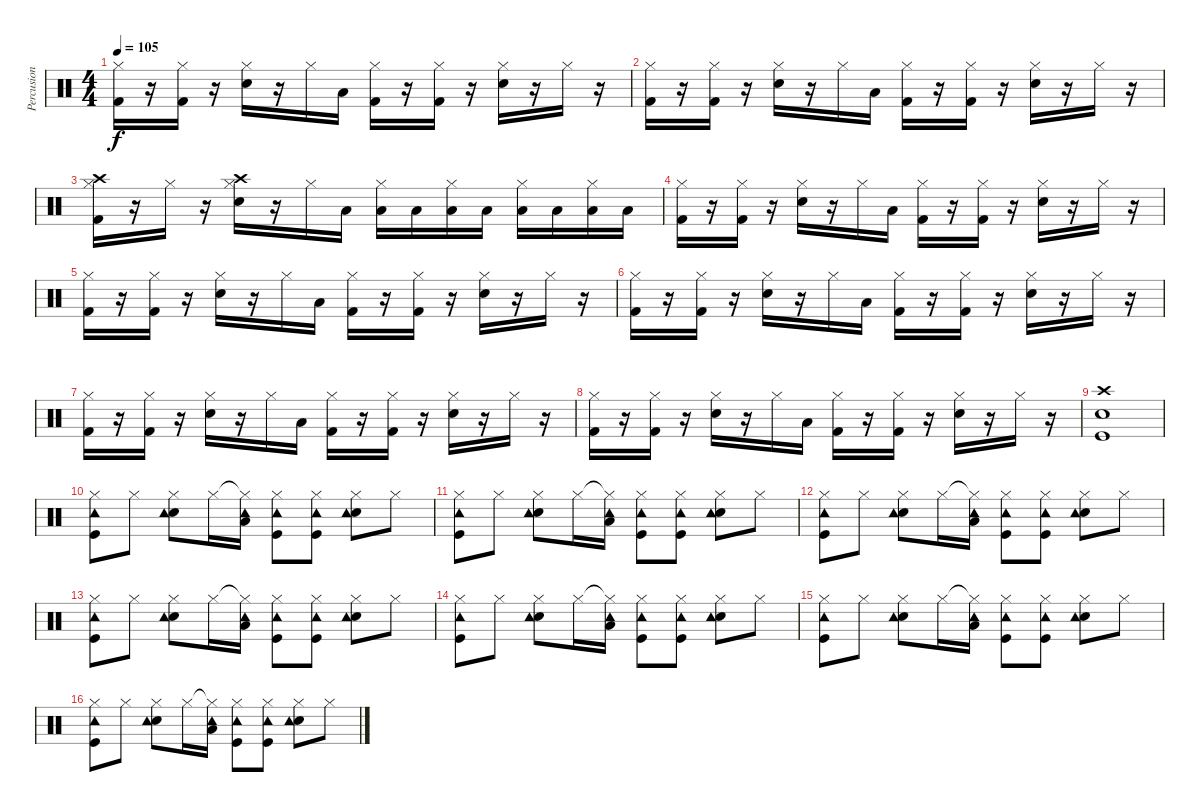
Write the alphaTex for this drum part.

\track ("Percusion" "Percusion") {instrument percussion}
\staff {score}
\articulation defaults
\ts (4 4)
\tempo 105
\clef neutral
\ks c
("Hi-Hat (closed)" "Kick (hit) 2").16{dy f} r.16 ("Hi-Hat (closed)" "Kick (hit) 2").16 r.16 ("Hi-Hat (closed)" "Snare (hit) 2").16 r.16 "Hi-Hat (closed)".16 "Low Floor Tom (hit)".16 ("Hi-Hat (closed)" "Kick (hit) 2").16 r.16 ("Hi-Hat (closed)" "Kick (hit) 2").16 r.16 ("Hi-Hat (closed)" "Snare (hit) 2").16 r.16 "Hi-Hat (closed)".16 r.16 |
("Hi-Hat (closed)" "Kick (hit) 2").16 r.16 ("Hi-Hat (closed)" "Kick (hit) 2").16 r.16 ("Hi-Hat (closed)" "Snare (hit) 2").16 r.16 "Hi-Hat (closed)".16 "Low Floor Tom (hit)".16 ("Hi-Hat (closed)" "Kick (hit) 2").16 r.16 ("Hi-Hat (closed)" "Kick (hit) 2").16 r.16 ("Hi-Hat (closed)" "Snare (hit) 2").16 r.16 "Hi-Hat (closed)".16 r.16 |
("Hi-Hat (closed)" "Kick (hit) 2" "Crash high (hit)").16 r.16 "Hi-Hat (closed)".16 r.16 ("Hi-Hat (closed)" "Snare (hit) 2" "Crash high (hit)").16 r.16 "Hi-Hat (closed)".16 "Low Floor Tom (hit)".16 ("Hi-Hat (closed)" "Low Tom (hit)").16 "Low Tom (hit)".16 ("Hi-Hat (closed)" "Low Tom (hit)").16 "Low Tom (hit)".16 ("Hi-Hat (closed)" "Low Tom (hit)").16 "Low Tom (hit)".16 ("Hi-Hat (closed)" "Low Tom (hit)").16 "Low Tom (hit)".16 |
("Hi-Hat (closed)" "Kick (hit) 2").16 r.16 ("Hi-Hat (closed)" "Kick (hit) 2").16 r.16 ("Hi-Hat (closed)" "Snare (hit) 2").16 r.16 "Hi-Hat (closed)".16 "Low Floor Tom (hit)".16 ("Hi-Hat (closed)" "Kick (hit) 2").16 r.16 ("Hi-Hat (closed)" "Kick (hit) 2").16 r.16 ("Hi-Hat (closed)" "Snare (hit) 2").16 r.16 "Hi-Hat (closed)".16 r.16 |
("Hi-Hat (closed)" "Kick (hit) 2").16 r.16 ("Hi-Hat (closed)" "Kick (hit) 2").16 r.16 ("Hi-Hat (closed)" "Snare (hit) 2").16 r.16 "Hi-Hat (closed)".16 "Low Floor Tom (hit)".16 ("Hi-Hat (closed)" "Kick (hit) 2").16 r.16 ("Hi-Hat (closed)" "Kick (hit) 2").16 r.16 ("Hi-Hat (closed)" "Snare (hit) 2").16 r.16 "Hi-Hat (closed)".16 r.16 |
("Hi-Hat (closed)" "Kick (hit) 2").16 r.16 ("Hi-Hat (closed)" "Kick (hit) 2").16 r.16 ("Hi-Hat (closed)" "Snare (hit) 2").16 r.16 "Hi-Hat (closed)".16 "Low Floor Tom (hit)".16 ("Hi-Hat (closed)" "Kick (hit) 2").16 r.16 ("Hi-Hat (closed)" "Kick (hit) 2").16 r.16 ("Hi-Hat (closed)" "Snare (hit) 2").16 r.16 "Hi-Hat (closed)".16 r.16 |
("Hi-Hat (closed)" "Kick (hit) 2").16 r.16 ("Hi-Hat (closed)" "Kick (hit) 2").16 r.16 ("Hi-Hat (closed)" "Snare (hit) 2").16 r.16 "Hi-Hat (closed)".16 "Low Floor Tom (hit)".16 ("Hi-Hat (closed)" "Kick (hit) 2").16 r.16 ("Hi-Hat (closed)" "Kick (hit) 2").16 r.16 ("Hi-Hat (closed)" "Snare (hit) 2").16 r.16 "Hi-Hat (closed)".16 r.16 |
("Hi-Hat (closed)" "Kick (hit) 2").16 r.16 ("Hi-Hat (closed)" "Kick (hit) 2").16 r.16 ("Hi-Hat (closed)" "Snare (hit) 2").16 r.16 "Hi-Hat (closed)".16 "Low Floor Tom (hit)".16 ("Hi-Hat (closed)" "Kick (hit) 2").16 r.16 ("Hi-Hat (closed)" "Kick (hit) 2").16 r.16 ("Hi-Hat (closed)" "Snare (hit) 2").16 r.16 "Hi-Hat (closed)".16 r.16 |
("Kick (hit)" "Crash high (hit)" "Snare (hit) 2").1 |
("Hi-Hat (closed)" "Kick (hit)" "Tambourine (hit)").8 "Hi-Hat (closed)".8 ("Hi-Hat (closed)" "Snare (hit) 2" "Tambourine (hit)").8 "Hi-Hat (closed)".16 ("Hi-Hat (closed)"{t} "Low Floor Tom (hit)" "Tambourine (hit)").16 ("Hi-Hat (closed)" "Kick (hit)" "Tambourine (hit)").8 ("Hi-Hat (closed)" "Kick (hit)" "Tambourine (hit)").8 ("Hi-Hat (closed)" "Snare (hit) 2" "Tambourine (hit)").8 "Hi-Hat (closed)".8 |
("Hi-Hat (closed)" "Kick (hit)" "Tambourine (hit)").8 "Hi-Hat (closed)".8 ("Hi-Hat (closed)" "Snare (hit) 2" "Tambourine (hit)").8 "Hi-Hat (closed)".16 ("Hi-Hat (closed)"{t} "Low Floor Tom (hit)" "Tambourine (hit)").16 ("Hi-Hat (closed)" "Kick (hit)" "Tambourine (hit)").8 ("Hi-Hat (closed)" "Kick (hit)" "Tambourine (hit)").8 ("Hi-Hat (closed)" "Snare (hit) 2" "Tambourine (hit)").8 "Hi-Hat (closed)".8 |
("Hi-Hat (closed)" "Kick (hit)" "Tambourine (hit)").8 "Hi-Hat (closed)".8 ("Hi-Hat (closed)" "Snare (hit) 2" "Tambourine (hit)").8 "Hi-Hat (closed)".16 ("Hi-Hat (closed)"{t} "Low Floor Tom (hit)" "Tambourine (hit)").16 ("Hi-Hat (closed)" "Kick (hit)" "Tambourine (hit)").8 ("Hi-Hat (closed)" "Kick (hit)" "Tambourine (hit)").8 ("Hi-Hat (closed)" "Snare (hit) 2" "Tambourine (hit)").8 "Hi-Hat (closed)".8 |
("Hi-Hat (closed)" "Kick (hit)" "Tambourine (hit)").8 "Hi-Hat (closed)".8 ("Hi-Hat (closed)" "Snare (hit) 2" "Tambourine (hit)").8 "Hi-Hat (closed)".16 ("Hi-Hat (closed)"{t} "Low Floor Tom (hit)" "Tambourine (hit)").16 ("Hi-Hat (closed)" "Kick (hit)" "Tambourine (hit)").8 ("Hi-Hat (closed)" "Kick (hit)" "Tambourine (hit)").8 ("Hi-Hat (closed)" "Snare (hit) 2" "Tambourine (hit)").8 "Hi-Hat (closed)".8 |
("Hi-Hat (closed)" "Kick (hit)" "Tambourine (hit)").8 "Hi-Hat (closed)".8 ("Hi-Hat (closed)" "Snare (hit) 2" "Tambourine (hit)").8 "Hi-Hat (closed)".16 ("Hi-Hat (closed)"{t} "Low Floor Tom (hit)" "Tambourine (hit)").16 ("Hi-Hat (closed)" "Kick (hit)" "Tambourine (hit)").8 ("Hi-Hat (closed)" "Kick (hit)" "Tambourine (hit)").8 ("Hi-Hat (closed)" "Snare (hit) 2" "Tambourine (hit)").8 "Hi-Hat (closed)".8 |
("Hi-Hat (closed)" "Kick (hit)" "Tambourine (hit)").8 "Hi-Hat (closed)".8 ("Hi-Hat (closed)" "Snare (hit) 2" "Tambourine (hit)").8 "Hi-Hat (closed)".16 ("Hi-Hat (closed)"{t} "Low Floor Tom (hit)" "Tambourine (hit)").16 ("Hi-Hat (closed)" "Kick (hit)" "Tambourine (hit)").8 ("Hi-Hat (closed)" "Kick (hit)" "Tambourine (hit)").8 ("Hi-Hat (closed)" "Snare (hit) 2" "Tambourine (hit)").8 "Hi-Hat (closed)".8 |
("Hi-Hat (closed)" "Kick (hit)" "Tambourine (hit)").8 "Hi-Hat (closed)".8 ("Hi-Hat (closed)" "Snare (hit) 2" "Tambourine (hit)").8 "Hi-Hat (closed)".16 ("Hi-Hat (closed)"{t} "Low Floor Tom (hit)" "Tambourine (hit)").16 ("Hi-Hat (closed)" "Kick (hit)" "Tambourine (hit)").8 ("Hi-Hat (closed)" "Kick (hit)" "Tambourine (hit)").8 ("Hi-Hat (closed)" "Snare (hit) 2" "Tambourine (hit)").8 "Hi-Hat (closed)".8
